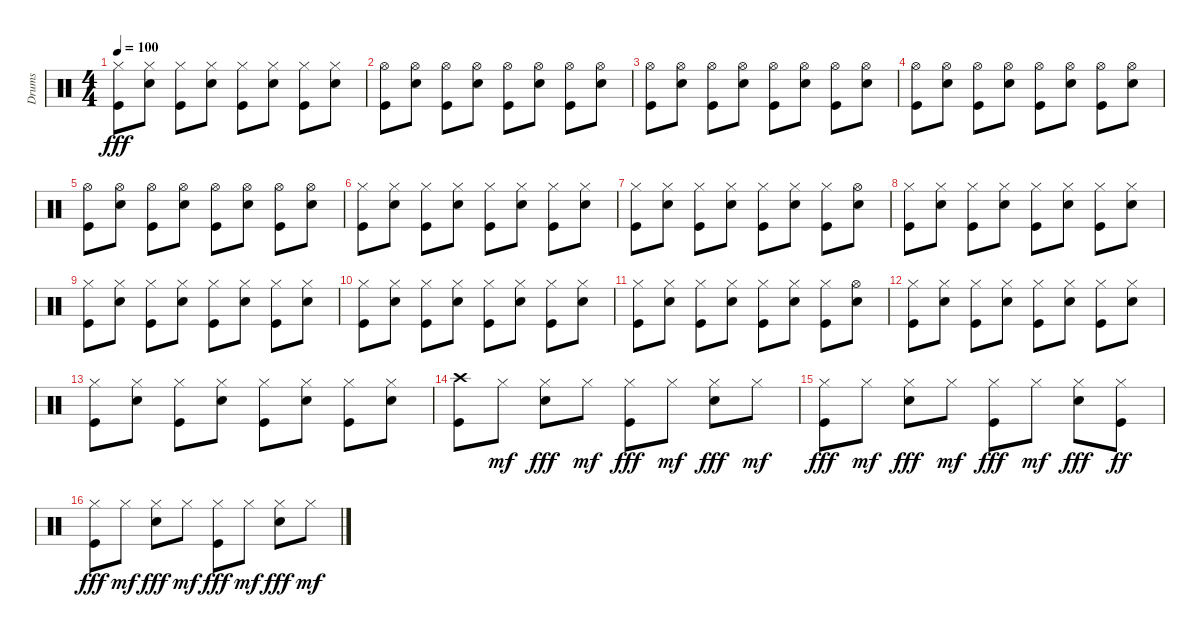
\track ("Drums" "Drums") {instrument percussion}
\staff {score}
\articulation defaults
\ts (4 4)
\tempo 100
\clef neutral
\ks c
("Hi-Hat (closed)" "Kick (hit)").8{dy fff} ("Hi-Hat (closed)" "Snare (hit) 2").8 ("Hi-Hat (closed)" "Kick (hit)").8 ("Hi-Hat (closed)" "Snare (hit) 2").8 ("Hi-Hat (closed)" "Kick (hit)").8 ("Hi-Hat (closed)" "Snare (hit) 2").8 ("Hi-Hat (closed)" "Kick (hit)").8 ("Hi-Hat (closed)" "Snare (hit) 2").8 |
("Hi-Hat (open)" "Kick (hit)").8 ("Hi-Hat (open)" "Snare (hit) 2").8 ("Hi-Hat (open)" "Kick (hit)").8 ("Hi-Hat (open)" "Snare (hit) 2").8 ("Hi-Hat (open)" "Kick (hit)").8 ("Hi-Hat (open)" "Snare (hit) 2").8 ("Hi-Hat (open)" "Kick (hit)").8 ("Hi-Hat (open)" "Snare (hit) 2").8 |
("Hi-Hat (open)" "Kick (hit)").8 ("Hi-Hat (open)" "Snare (hit) 2").8 ("Hi-Hat (open)" "Kick (hit)").8 ("Hi-Hat (open)" "Snare (hit) 2").8 ("Hi-Hat (open)" "Kick (hit)").8 ("Hi-Hat (open)" "Snare (hit) 2").8 ("Hi-Hat (open)" "Kick (hit)").8 ("Hi-Hat (open)" "Snare (hit) 2").8 |
("Hi-Hat (open)" "Kick (hit)").8 ("Hi-Hat (open)" "Snare (hit) 2").8 ("Hi-Hat (open)" "Kick (hit)").8 ("Hi-Hat (open)" "Snare (hit) 2").8 ("Hi-Hat (open)" "Kick (hit)").8 ("Hi-Hat (open)" "Snare (hit) 2").8 ("Hi-Hat (open)" "Kick (hit)").8 ("Hi-Hat (open)" "Snare (hit) 2").8 |
("Hi-Hat (open)" "Kick (hit)").8 ("Hi-Hat (open)" "Snare (hit) 2").8 ("Hi-Hat (open)" "Kick (hit)").8 ("Hi-Hat (open)" "Snare (hit) 2").8 ("Hi-Hat (open)" "Kick (hit)").8 ("Hi-Hat (open)" "Snare (hit) 2").8 ("Hi-Hat (open)" "Kick (hit)").8 ("Hi-Hat (open)" "Snare (hit) 2").8 |
("Hi-Hat (closed)" "Kick (hit)").8 ("Hi-Hat (closed)" "Snare (hit) 2").8 ("Hi-Hat (closed)" "Kick (hit)").8 ("Hi-Hat (closed)" "Snare (hit) 2").8 ("Hi-Hat (closed)" "Kick (hit)").8 ("Hi-Hat (closed)" "Snare (hit) 2").8 ("Hi-Hat (closed)" "Kick (hit)").8 ("Hi-Hat (closed)" "Snare (hit) 2").8 |
("Hi-Hat (closed)" "Kick (hit)").8 ("Hi-Hat (closed)" "Snare (hit) 2").8 ("Hi-Hat (closed)" "Kick (hit)").8 ("Hi-Hat (closed)" "Snare (hit) 2").8 ("Hi-Hat (closed)" "Kick (hit)").8 ("Hi-Hat (closed)" "Snare (hit) 2").8 ("Hi-Hat (closed)" "Kick (hit)").8 ("Hi-Hat (open)" "Snare (hit) 2").8 |
("Hi-Hat (closed)" "Kick (hit)").8 ("Hi-Hat (closed)" "Snare (hit) 2").8 ("Hi-Hat (closed)" "Kick (hit)").8 ("Hi-Hat (closed)" "Snare (hit) 2").8 ("Hi-Hat (closed)" "Kick (hit)").8 ("Hi-Hat (closed)" "Snare (hit) 2").8 ("Hi-Hat (closed)" "Kick (hit)").8 ("Hi-Hat (closed)" "Snare (hit) 2").8 |
("Hi-Hat (closed)" "Kick (hit)").8 ("Hi-Hat (closed)" "Snare (hit) 2").8 ("Hi-Hat (closed)" "Kick (hit)").8 ("Hi-Hat (closed)" "Snare (hit) 2").8 ("Hi-Hat (closed)" "Kick (hit)").8 ("Hi-Hat (closed)" "Snare (hit) 2").8 ("Hi-Hat (closed)" "Kick (hit)").8 ("Hi-Hat (closed)" "Snare (hit) 2").8 |
("Hi-Hat (closed)" "Kick (hit)").8 ("Hi-Hat (closed)" "Snare (hit) 2").8 ("Hi-Hat (closed)" "Kick (hit)").8 ("Hi-Hat (closed)" "Snare (hit) 2").8 ("Hi-Hat (closed)" "Kick (hit)").8 ("Hi-Hat (closed)" "Snare (hit) 2").8 ("Hi-Hat (closed)" "Kick (hit)").8 ("Hi-Hat (closed)" "Snare (hit) 2").8 |
("Hi-Hat (closed)" "Kick (hit)").8 ("Hi-Hat (closed)" "Snare (hit) 2").8 ("Hi-Hat (closed)" "Kick (hit)").8 ("Hi-Hat (closed)" "Snare (hit) 2").8 ("Hi-Hat (closed)" "Kick (hit)").8 ("Hi-Hat (closed)" "Snare (hit) 2").8 ("Hi-Hat (closed)" "Kick (hit)").8 ("Hi-Hat (open)" "Snare (hit) 2").8 |
("Hi-Hat (closed)" "Kick (hit)").8 ("Hi-Hat (closed)" "Snare (hit) 2").8 ("Hi-Hat (closed)" "Kick (hit)").8 ("Hi-Hat (closed)" "Snare (hit) 2").8 ("Hi-Hat (closed)" "Kick (hit)").8 ("Hi-Hat (closed)" "Snare (hit) 2").8 ("Hi-Hat (closed)" "Kick (hit)").8 ("Hi-Hat (closed)" "Snare (hit) 2").8 |
("Hi-Hat (closed)" "Kick (hit)").8 ("Hi-Hat (closed)" "Snare (hit) 2").8 ("Hi-Hat (closed)" "Kick (hit)").8 ("Hi-Hat (closed)" "Snare (hit) 2").8 ("Hi-Hat (closed)" "Kick (hit)").8 ("Hi-Hat (closed)" "Snare (hit) 2").8 ("Hi-Hat (closed)" "Kick (hit)").8 ("Hi-Hat (closed)" "Snare (hit) 2").8 |
("Crash high (hit)" "Kick (hit)").8 "Hi-Hat (closed)".8{dy mf} ("Hi-Hat (closed)" "Snare (hit) 2").8{dy fff} "Hi-Hat (closed)".8{dy mf} ("Hi-Hat (closed)" "Kick (hit)").8{dy fff} "Hi-Hat (closed)".8{dy mf} ("Hi-Hat (closed)" "Snare (hit) 2").8{dy fff} "Hi-Hat (closed)".8{dy mf} |
("Hi-Hat (closed)" "Kick (hit)").8{dy fff} "Hi-Hat (closed)".8{dy mf} ("Hi-Hat (closed)" "Snare (hit) 2").8{dy fff} "Hi-Hat (closed)".8{dy mf} ("Hi-Hat (closed)" "Kick (hit)").8{dy fff} "Hi-Hat (closed)".8{dy mf} ("Hi-Hat (closed)" "Snare (hit) 2").8{dy fff} ("Hi-Hat (closed)" "Kick (hit)").8{dy ff} |
("Hi-Hat (closed)" "Kick (hit)").8{dy fff} "Hi-Hat (closed)".8{dy mf} ("Hi-Hat (closed)" "Snare (hit) 2").8{dy fff} "Hi-Hat (closed)".8{dy mf} ("Hi-Hat (closed)" "Kick (hit)").8{dy fff} "Hi-Hat (closed)".8{dy mf} ("Hi-Hat (closed)" "Snare (hit) 2").8{dy fff} "Hi-Hat (closed)".8{dy mf}
